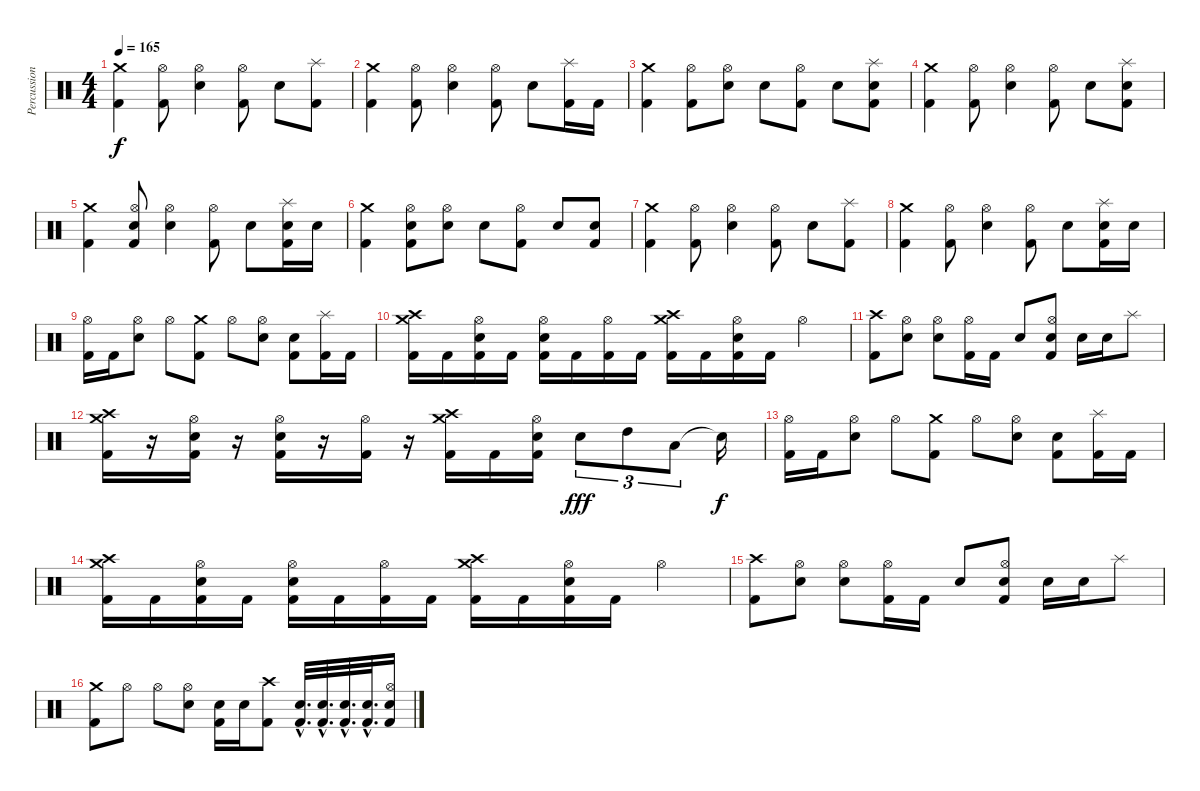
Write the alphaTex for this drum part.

\track ("Percussion" "Percussion") {instrument percussion}
\staff {score}
\articulation defaults
\ts (4 4)
\tempo 165
\clef neutral
\ks c
("Crash medium (hit)" "Kick (hit) 2").4{dy f} ("Hi-Hat (open)" "Kick (hit) 2").8 ("Hi-Hat (open)" "Electric Snare (hit)").4 ("Hi-Hat (open)" "Kick (hit) 2").8 "Electric Snare (hit)".8 ("Splash (hit)" "Kick (hit) 2").8 |
("Crash medium (hit)" "Kick (hit) 2").4 ("Hi-Hat (open)" "Kick (hit) 2").8 ("Hi-Hat (open)" "Electric Snare (hit)").4 ("Hi-Hat (open)" "Kick (hit) 2").8 "Electric Snare (hit)".8 ("Splash (hit)" "Kick (hit) 2").16 "Kick (hit) 2".16 |
("Crash medium (hit)" "Kick (hit) 2").4 ("Hi-Hat (open)" "Kick (hit) 2").8 ("Hi-Hat (open)" "Electric Snare (hit)").8 "Electric Snare (hit)".8 ("Hi-Hat (open)" "Kick (hit) 2").8 "Electric Snare (hit)".8 ("Splash (hit)" "Electric Snare (hit)" "Kick (hit) 2").8 |
("Crash medium (hit)" "Kick (hit) 2").4 ("Hi-Hat (open)" "Kick (hit) 2").8 ("Hi-Hat (open)" "Electric Snare (hit)").4 ("Hi-Hat (open)" "Kick (hit) 2").8 "Electric Snare (hit)".8 ("Splash (hit)" "Electric Snare (hit)" "Kick (hit) 2").8 |
("Crash medium (hit)" "Kick (hit) 2").4 ("Hi-Hat (open)" "Electric Snare (hit)" "Kick (hit) 2").8 ("Hi-Hat (open)" "Electric Snare (hit)").4 ("Hi-Hat (open)" "Kick (hit) 2").8 "Electric Snare (hit)".8 ("Splash (hit)" "Electric Snare (hit)" "Kick (hit) 2").16 "Electric Snare (hit)".16 |
("Crash medium (hit)" "Kick (hit) 2").4 ("Hi-Hat (open)" "Electric Snare (hit)" "Kick (hit) 2").8 ("Hi-Hat (open)" "Electric Snare (hit)").8 "Electric Snare (hit)".8 ("Hi-Hat (open)" "Kick (hit) 2").8 "Electric Snare (hit)".8 ("Electric Snare (hit)" "Kick (hit) 2").8 |
("Crash medium (hit)" "Kick (hit) 2").4 ("Hi-Hat (open)" "Kick (hit) 2").8 ("Hi-Hat (open)" "Electric Snare (hit)").4 ("Hi-Hat (open)" "Kick (hit) 2").8 "Electric Snare (hit)".8 ("Splash (hit)" "Kick (hit) 2").8 |
("Crash medium (hit)" "Kick (hit) 2").4 ("Hi-Hat (open)" "Kick (hit) 2").8 ("Hi-Hat (open)" "Electric Snare (hit)").4 ("Hi-Hat (open)" "Kick (hit) 2").8 "Electric Snare (hit)".8 ("Splash (hit)" "Electric Snare (hit)" "Kick (hit) 2").16 "Electric Snare (hit)".16 |
("Hi-Hat (open)" "Kick (hit) 2").16 "Kick (hit) 2".16 ("Hi-Hat (open)" "Electric Snare (hit)").8 "Hi-Hat (open)".8 ("Crash medium (hit)" "Kick (hit) 2").8 "Hi-Hat (open)".8 ("Hi-Hat (open)" "Electric Snare (hit)").8 ("Electric Snare (hit)" "Kick (hit) 2").8 ("Splash (hit)" "Kick (hit) 2").16 "Kick (hit) 2".16 |
("Crash medium (hit)" "Crash high (hit)" "Kick (hit) 2").16 "Kick (hit) 2".16 ("Hi-Hat (open)" "Electric Snare (hit)" "Kick (hit) 2").16 "Kick (hit) 2".16 ("Hi-Hat (open)" "Electric Snare (hit)" "Kick (hit) 2").16 "Kick (hit) 2".16 ("Hi-Hat (open)" "Kick (hit) 2").16 "Kick (hit) 2".16 ("Crash medium (hit)" "Crash high (hit)" "Kick (hit) 2").16 "Kick (hit) 2".16 ("Hi-Hat (open)" "Electric Snare (hit)" "Kick (hit) 2").16 "Kick (hit) 2".16 "Hi-Hat (open)".4 |
("Crash high (hit)" "Kick (hit) 2").8 ("Hi-Hat (open)" "Electric Snare (hit)").8 ("Hi-Hat (open)" "Electric Snare (hit)").8 ("Hi-Hat (open)" "Kick (hit) 2").16 "Kick (hit) 2".16 "Electric Snare (hit)".8 ("Hi-Hat (open)" "Electric Snare (hit)" "Kick (hit) 2").8 "Electric Snare (hit)".16 "Electric Snare (hit)".16 "Splash (hit)".8 |
("Crash medium (hit)" "Crash high (hit)" "Kick (hit) 2").16 r.16 ("Hi-Hat (open)" "Electric Snare (hit)" "Kick (hit) 2").16 r.16 ("Hi-Hat (open)" "Electric Snare (hit)" "Kick (hit) 2").16 r.16 ("Hi-Hat (open)" "Kick (hit) 2").16 r.16 ("Crash medium (hit)" "Crash high (hit)" "Kick (hit) 2").16 "Kick (hit) 2".16 ("Hi-Hat (open)" "Electric Snare (hit)" "Kick (hit) 2").16 "Electric Snare (hit)".8{tu (3 2) dy fff} "High Tom (hit)".8{tu (3 2)} "Low Tom (hit)".8{tu (3 2)} "Snare (hit)"{t}.16{dy f} |
("Hi-Hat (open)" "Kick (hit) 2").16 "Kick (hit) 2".16 ("Hi-Hat (open)" "Electric Snare (hit)").8 "Hi-Hat (open)".8 ("Crash medium (hit)" "Kick (hit) 2").8 "Hi-Hat (open)".8 ("Hi-Hat (open)" "Electric Snare (hit)").8 ("Electric Snare (hit)" "Kick (hit) 2").8 ("Splash (hit)" "Kick (hit) 2").16 "Kick (hit) 2".16 |
("Crash medium (hit)" "Crash high (hit)" "Kick (hit) 2").16 "Kick (hit) 2".16 ("Hi-Hat (open)" "Electric Snare (hit)" "Kick (hit) 2").16 "Kick (hit) 2".16 ("Hi-Hat (open)" "Electric Snare (hit)" "Kick (hit) 2").16 "Kick (hit) 2".16 ("Hi-Hat (open)" "Kick (hit) 2").16 "Kick (hit) 2".16 ("Crash medium (hit)" "Crash high (hit)" "Kick (hit) 2").16 "Kick (hit) 2".16 ("Hi-Hat (open)" "Electric Snare (hit)" "Kick (hit) 2").16 "Kick (hit) 2".16 "Hi-Hat (open)".4 |
("Crash high (hit)" "Kick (hit) 2").8 ("Hi-Hat (open)" "Electric Snare (hit)").8 ("Hi-Hat (open)" "Electric Snare (hit)").8 ("Hi-Hat (open)" "Kick (hit) 2").16 "Kick (hit) 2".16 "Electric Snare (hit)".8 ("Hi-Hat (open)" "Electric Snare (hit)" "Kick (hit) 2").8 "Electric Snare (hit)".16 "Electric Snare (hit)".16 "Splash (hit)".8 |
("Crash medium (hit)" "Kick (hit) 2").8 "Hi-Hat (open)".8 "Hi-Hat (open)".8 ("Hi-Hat (open)" "Electric Snare (hit)").8 ("Electric Snare (hit)" "Kick (hit) 2").16 "Electric Snare (hit)".16 ("Crash high (hit)" "Kick (hit) 2").8 ("Electric Snare (hit)"{hac} "Kick (hit) 2"{hac}).32{d} ("Electric Snare (hit)"{hac} "Kick (hit) 2"{hac}).32{d} ("Electric Snare (hit)"{hac} "Kick (hit) 2"{hac}).32{d} ("Electric Snare (hit)"{hac} "Kick (hit) 2"{hac}).32{d} ("Hi-Hat (open)" "Electric Snare (hit)" "Kick (hit) 2").16
